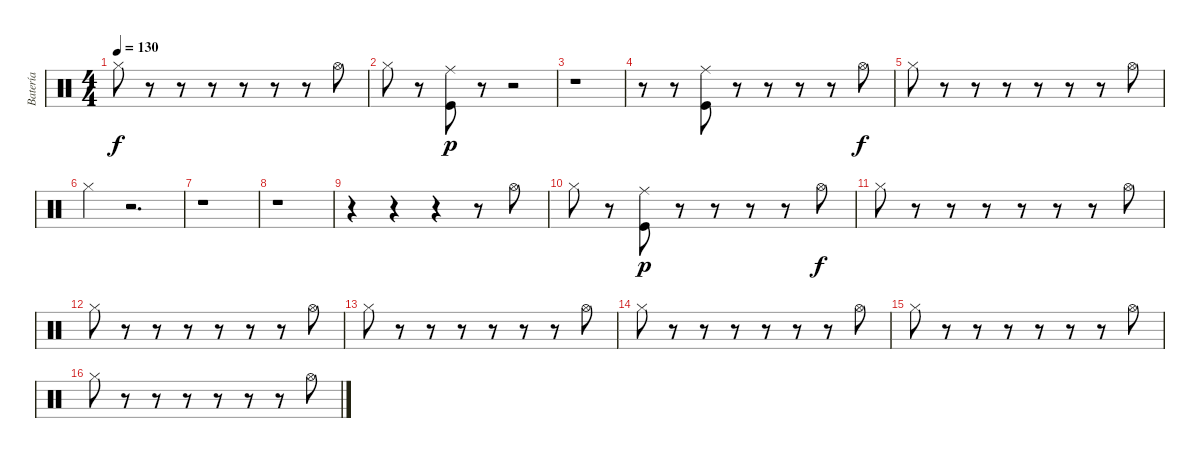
\track ("Batería" "Batería") {instrument percussion}
\staff {score}
\articulation defaults
\ts (4 4)
\tempo 130
\clef neutral
\ks c "Hi-Hat (closed)".8{dy f}
r.8 r.8 r.8 r.8 r.8 r.8 "Hi-Hat (open)".8 |
"Hi-Hat (closed)".8 r.8 ("Ride (middle)" "Kick (hit)").8{dy p} r.8 r.2 |
r.1 |
r.8 r.8 ("Ride (middle)" "Kick (hit)").8 r.8 r.8 r.8 r.8 "Hi-Hat (open)".8{dy f} |
"Hi-Hat (closed)".8 r.8 r.8 r.8 r.8 r.8 r.8 "Hi-Hat (open)".8 |
"Hi-Hat (closed)".4 r.2{d} |
r.1 |
r.1 |
r.4 r.4 r.4 r.8 "Hi-Hat (open)".8 |
"Hi-Hat (closed)".8 r.8 ("Ride (middle)" "Kick (hit)").8{dy p} r.8 r.8 r.8 r.8 "Hi-Hat (open)".8{dy f} |
"Hi-Hat (closed)".8 r.8 r.8 r.8 r.8 r.8 r.8 "Hi-Hat (open)".8 |
"Hi-Hat (closed)".8 r.8 r.8 r.8 r.8 r.8 r.8 "Hi-Hat (open)".8 |
"Hi-Hat (closed)".8 r.8 r.8 r.8 r.8 r.8 r.8 "Hi-Hat (open)".8 |
"Hi-Hat (closed)".8 r.8 r.8 r.8 r.8 r.8 r.8 "Hi-Hat (open)".8 |
"Hi-Hat (closed)".8 r.8 r.8 r.8 r.8 r.8 r.8 "Hi-Hat (open)".8 |
"Hi-Hat (closed)".8 r.8 r.8 r.8 r.8 r.8 r.8 "Hi-Hat (open)".8
